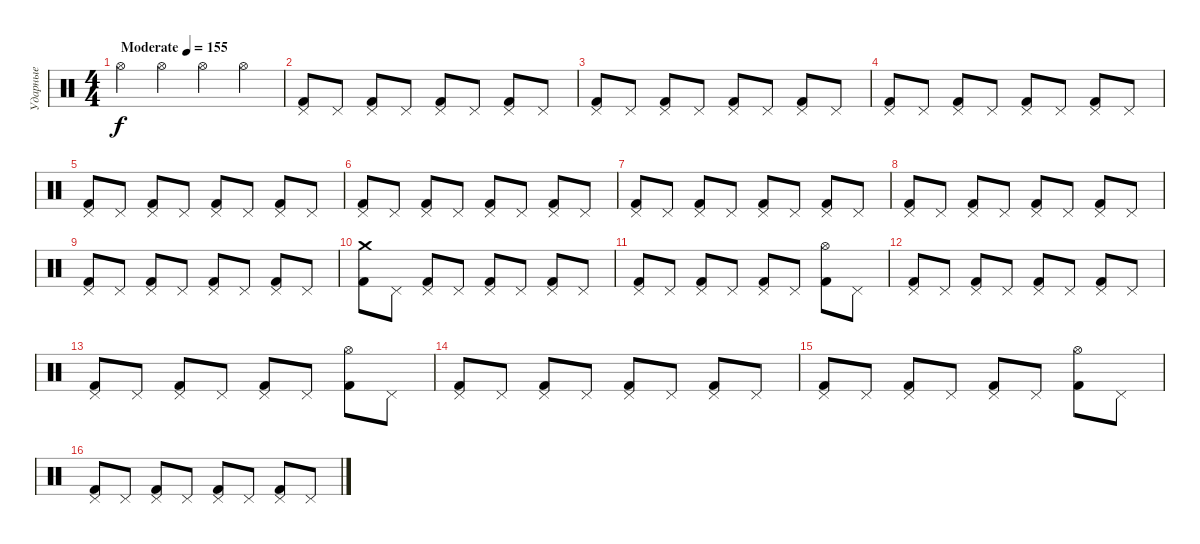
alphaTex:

\track ("Ударные" "Ударные") {instrument percussion}
\staff {score}
\articulation defaults
\ts (4 4)
\tempo (155 "Moderate")
\clef neutral
\ks c "Hi-Hat (open)".4{dy f} "Hi-Hat (open)".4 "Hi-Hat (open)".4 "Hi-Hat (open)".4
|
("Pedal Hi-Hat (hit)" "Kick (hit) 2").8 "Pedal Hi-Hat (hit)".8 ("Pedal Hi-Hat (hit)" "Kick (hit) 2").8 "Pedal Hi-Hat (hit)".8 ("Pedal Hi-Hat (hit)" "Kick (hit) 2").8 "Pedal Hi-Hat (hit)".8 ("Pedal Hi-Hat (hit)" "Kick (hit) 2").8 "Pedal Hi-Hat (hit)".8 |
("Pedal Hi-Hat (hit)" "Kick (hit) 2").8 "Pedal Hi-Hat (hit)".8 ("Pedal Hi-Hat (hit)" "Kick (hit) 2").8 "Pedal Hi-Hat (hit)".8 ("Pedal Hi-Hat (hit)" "Kick (hit) 2").8 "Pedal Hi-Hat (hit)".8 ("Pedal Hi-Hat (hit)" "Kick (hit) 2").8 "Pedal Hi-Hat (hit)".8 |
("Pedal Hi-Hat (hit)" "Kick (hit) 2").8 "Pedal Hi-Hat (hit)".8 ("Pedal Hi-Hat (hit)" "Kick (hit) 2").8 "Pedal Hi-Hat (hit)".8 ("Pedal Hi-Hat (hit)" "Kick (hit) 2").8 "Pedal Hi-Hat (hit)".8 ("Pedal Hi-Hat (hit)" "Kick (hit) 2").8 "Pedal Hi-Hat (hit)".8 |
("Pedal Hi-Hat (hit)" "Kick (hit) 2").8 "Pedal Hi-Hat (hit)".8 ("Pedal Hi-Hat (hit)" "Kick (hit) 2").8 "Pedal Hi-Hat (hit)".8 ("Pedal Hi-Hat (hit)" "Kick (hit) 2").8 "Pedal Hi-Hat (hit)".8 ("Pedal Hi-Hat (hit)" "Kick (hit) 2").8 "Pedal Hi-Hat (hit)".8 |
("Pedal Hi-Hat (hit)" "Kick (hit) 2").8 "Pedal Hi-Hat (hit)".8 ("Pedal Hi-Hat (hit)" "Kick (hit) 2").8 "Pedal Hi-Hat (hit)".8 ("Pedal Hi-Hat (hit)" "Kick (hit) 2").8 "Pedal Hi-Hat (hit)".8 ("Pedal Hi-Hat (hit)" "Kick (hit) 2").8 "Pedal Hi-Hat (hit)".8 |
("Pedal Hi-Hat (hit)" "Kick (hit) 2").8 "Pedal Hi-Hat (hit)".8 ("Pedal Hi-Hat (hit)" "Kick (hit) 2").8 "Pedal Hi-Hat (hit)".8 ("Pedal Hi-Hat (hit)" "Kick (hit) 2").8 "Pedal Hi-Hat (hit)".8 ("Pedal Hi-Hat (hit)" "Kick (hit) 2").8 "Pedal Hi-Hat (hit)".8 |
("Pedal Hi-Hat (hit)" "Kick (hit) 2").8 "Pedal Hi-Hat (hit)".8 ("Pedal Hi-Hat (hit)" "Kick (hit) 2").8 "Pedal Hi-Hat (hit)".8 ("Pedal Hi-Hat (hit)" "Kick (hit) 2").8 "Pedal Hi-Hat (hit)".8 ("Pedal Hi-Hat (hit)" "Kick (hit) 2").8 "Pedal Hi-Hat (hit)".8 |
("Pedal Hi-Hat (hit)" "Kick (hit) 2").8 "Pedal Hi-Hat (hit)".8 ("Pedal Hi-Hat (hit)" "Kick (hit) 2").8 "Pedal Hi-Hat (hit)".8 ("Pedal Hi-Hat (hit)" "Kick (hit) 2").8 "Pedal Hi-Hat (hit)".8 ("Pedal Hi-Hat (hit)" "Kick (hit) 2").8 "Pedal Hi-Hat (hit)".8 |
("Crash medium (hit)" "Kick (hit) 2").8 "Pedal Hi-Hat (hit)".8 ("Pedal Hi-Hat (hit)" "Kick (hit) 2").8 "Pedal Hi-Hat (hit)".8 ("Pedal Hi-Hat (hit)" "Kick (hit) 2").8 "Pedal Hi-Hat (hit)".8 ("Pedal Hi-Hat (hit)" "Kick (hit) 2").8 "Pedal Hi-Hat (hit)".8 |
("Pedal Hi-Hat (hit)" "Kick (hit) 2").8 "Pedal Hi-Hat (hit)".8 ("Pedal Hi-Hat (hit)" "Kick (hit) 2").8 "Pedal Hi-Hat (hit)".8 ("Pedal Hi-Hat (hit)" "Kick (hit) 2").8 "Pedal Hi-Hat (hit)".8 ("Hi-Hat (open)" "Kick (hit) 2").8 "Pedal Hi-Hat (hit)".8 |
("Pedal Hi-Hat (hit)" "Kick (hit) 2").8 "Pedal Hi-Hat (hit)".8 ("Pedal Hi-Hat (hit)" "Kick (hit) 2").8 "Pedal Hi-Hat (hit)".8 ("Pedal Hi-Hat (hit)" "Kick (hit) 2").8 "Pedal Hi-Hat (hit)".8 ("Pedal Hi-Hat (hit)" "Kick (hit) 2").8 "Pedal Hi-Hat (hit)".8 |
("Pedal Hi-Hat (hit)" "Kick (hit) 2").8 "Pedal Hi-Hat (hit)".8 ("Pedal Hi-Hat (hit)" "Kick (hit) 2").8 "Pedal Hi-Hat (hit)".8 ("Pedal Hi-Hat (hit)" "Kick (hit) 2").8 "Pedal Hi-Hat (hit)".8 ("Hi-Hat (open)" "Kick (hit) 2").8 "Pedal Hi-Hat (hit)".8 |
("Pedal Hi-Hat (hit)" "Kick (hit) 2").8 "Pedal Hi-Hat (hit)".8 ("Pedal Hi-Hat (hit)" "Kick (hit) 2").8 "Pedal Hi-Hat (hit)".8 ("Pedal Hi-Hat (hit)" "Kick (hit) 2").8 "Pedal Hi-Hat (hit)".8 ("Pedal Hi-Hat (hit)" "Kick (hit) 2").8 "Pedal Hi-Hat (hit)".8 |
("Pedal Hi-Hat (hit)" "Kick (hit) 2").8 "Pedal Hi-Hat (hit)".8 ("Pedal Hi-Hat (hit)" "Kick (hit) 2").8 "Pedal Hi-Hat (hit)".8 ("Pedal Hi-Hat (hit)" "Kick (hit) 2").8 "Pedal Hi-Hat (hit)".8 ("Hi-Hat (open)" "Kick (hit) 2").8 "Pedal Hi-Hat (hit)".8 |
("Pedal Hi-Hat (hit)" "Kick (hit) 2").8 "Pedal Hi-Hat (hit)".8 ("Pedal Hi-Hat (hit)" "Kick (hit) 2").8 "Pedal Hi-Hat (hit)".8 ("Pedal Hi-Hat (hit)" "Kick (hit) 2").8 "Pedal Hi-Hat (hit)".8 ("Pedal Hi-Hat (hit)" "Kick (hit) 2").8 "Pedal Hi-Hat (hit)".8
